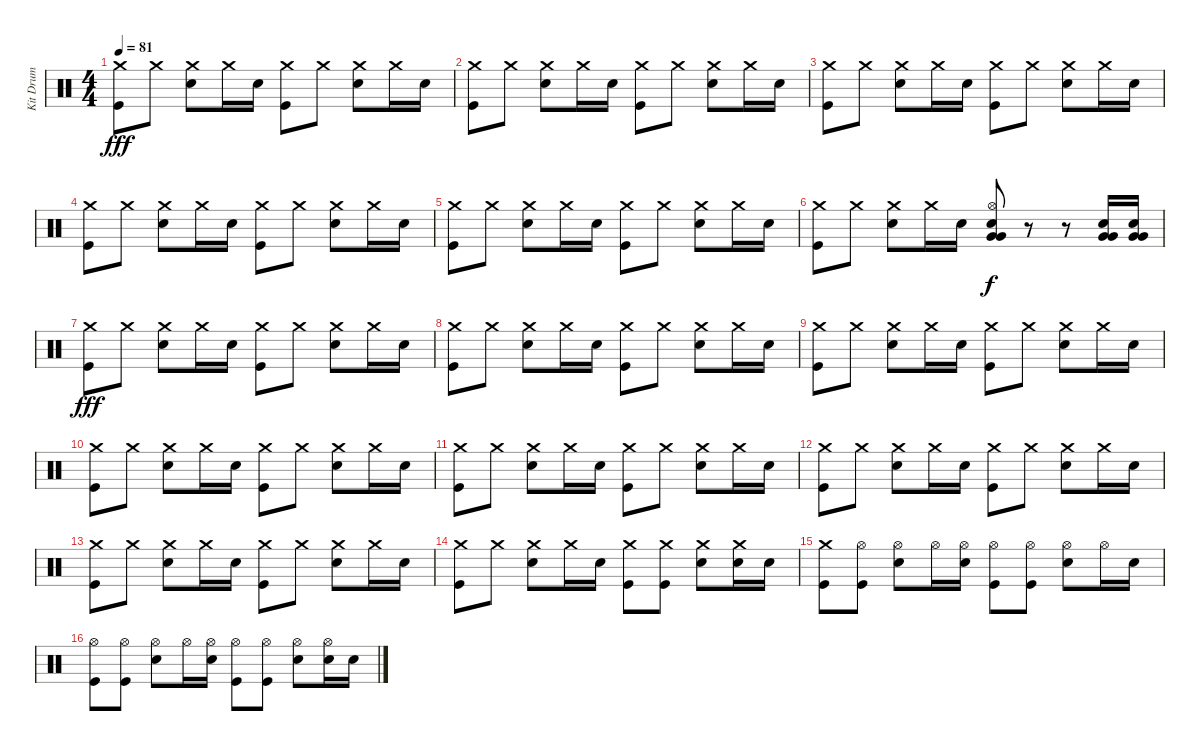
\track ("Kit Drum" "Kit Drum") {instrument percussion}
\staff {score}
\articulation defaults
\ts (4 4)
\tempo 81
\clef neutral
\ks c
("Crash medium (hit)" "Kick (hit)").8{dy fff} "Crash medium (hit)".8 ("Crash medium (hit)" "Electric Snare (hit)").8 "Crash medium (hit)".16 "Electric Snare (hit)".16 ("Crash medium (hit)" "Kick (hit)").8 "Crash medium (hit)".8 ("Crash medium (hit)" "Electric Snare (hit)").8 "Crash medium (hit)".16 "Electric Snare (hit)".16 |
("Crash medium (hit)" "Kick (hit)").8 "Crash medium (hit)".8 ("Crash medium (hit)" "Electric Snare (hit)").8 "Crash medium (hit)".16 "Electric Snare (hit)".16 ("Crash medium (hit)" "Kick (hit)").8 "Crash medium (hit)".8 ("Crash medium (hit)" "Electric Snare (hit)").8 "Crash medium (hit)".16 "Electric Snare (hit)".16 |
("Crash medium (hit)" "Kick (hit)").8 "Crash medium (hit)".8 ("Crash medium (hit)" "Electric Snare (hit)").8 "Crash medium (hit)".16 "Electric Snare (hit)".16 ("Crash medium (hit)" "Kick (hit)").8 "Crash medium (hit)".8 ("Crash medium (hit)" "Electric Snare (hit)").8 "Crash medium (hit)".16 "Electric Snare (hit)".16 |
("Crash medium (hit)" "Kick (hit)").8 "Crash medium (hit)".8 ("Crash medium (hit)" "Electric Snare (hit)").8 "Crash medium (hit)".16 "Electric Snare (hit)".16 ("Crash medium (hit)" "Kick (hit)").8 "Crash medium (hit)".8 ("Crash medium (hit)" "Electric Snare (hit)").8 "Crash medium (hit)".16 "Electric Snare (hit)".16 |
("Crash medium (hit)" "Kick (hit)").8 "Crash medium (hit)".8 ("Crash medium (hit)" "Electric Snare (hit)").8 "Crash medium (hit)".16 "Electric Snare (hit)".16 ("Crash medium (hit)" "Kick (hit)").8 "Crash medium (hit)".8 ("Crash medium (hit)" "Electric Snare (hit)").8 "Crash medium (hit)".16 "Electric Snare (hit)".16 |
("Crash medium (hit)" "Kick (hit)").8 "Crash medium (hit)".8 ("Crash medium (hit)" "Electric Snare (hit)").8 "Crash medium (hit)".16 "Electric Snare (hit)".16 ("Hi-Hat (open)" "Electric Snare (hit)" "Very Low Tom (hit)" "Very Low Tom (hit)").8{dy f} r.8 r.8 ("Electric Snare (hit)" "Very Low Tom (hit)" "Very Low Tom (hit)").16 ("Electric Snare (hit)" "Very Low Tom (hit)" "Very Low Tom (hit)").16 |
("Crash medium (hit)" "Kick (hit)").8{dy fff} "Crash medium (hit)".8 ("Crash medium (hit)" "Electric Snare (hit)").8 "Crash medium (hit)".16 "Electric Snare (hit)".16 ("Crash medium (hit)" "Kick (hit)").8 "Crash medium (hit)".8 ("Crash medium (hit)" "Electric Snare (hit)").8 "Crash medium (hit)".16 "Electric Snare (hit)".16 |
("Crash medium (hit)" "Kick (hit)").8 "Crash medium (hit)".8 ("Crash medium (hit)" "Electric Snare (hit)").8 "Crash medium (hit)".16 "Electric Snare (hit)".16 ("Crash medium (hit)" "Kick (hit)").8 "Crash medium (hit)".8 ("Crash medium (hit)" "Electric Snare (hit)").8 "Crash medium (hit)".16 "Electric Snare (hit)".16 |
("Crash medium (hit)" "Kick (hit)").8 "Crash medium (hit)".8 ("Crash medium (hit)" "Electric Snare (hit)").8 "Crash medium (hit)".16 "Electric Snare (hit)".16 ("Crash medium (hit)" "Kick (hit)").8 "Crash medium (hit)".8 ("Crash medium (hit)" "Electric Snare (hit)").8 "Crash medium (hit)".16 "Electric Snare (hit)".16 |
("Crash medium (hit)" "Kick (hit)").8 "Crash medium (hit)".8 ("Crash medium (hit)" "Electric Snare (hit)").8 "Crash medium (hit)".16 "Electric Snare (hit)".16 ("Crash medium (hit)" "Kick (hit)").8 "Crash medium (hit)".8 ("Crash medium (hit)" "Electric Snare (hit)").8 "Crash medium (hit)".16 "Electric Snare (hit)".16 |
("Crash medium (hit)" "Kick (hit)").8 "Crash medium (hit)".8 ("Crash medium (hit)" "Electric Snare (hit)").8 "Crash medium (hit)".16 "Electric Snare (hit)".16 ("Crash medium (hit)" "Kick (hit)").8 "Crash medium (hit)".8 ("Crash medium (hit)" "Electric Snare (hit)").8 "Crash medium (hit)".16 "Electric Snare (hit)".16 |
("Crash medium (hit)" "Kick (hit)").8 "Crash medium (hit)".8 ("Crash medium (hit)" "Electric Snare (hit)").8 "Crash medium (hit)".16 "Electric Snare (hit)".16 ("Crash medium (hit)" "Kick (hit)").8 "Crash medium (hit)".8 ("Crash medium (hit)" "Electric Snare (hit)").8 "Crash medium (hit)".16 "Electric Snare (hit)".16 |
("Crash medium (hit)" "Kick (hit)").8 "Crash medium (hit)".8 ("Crash medium (hit)" "Electric Snare (hit)").8 "Crash medium (hit)".16 "Electric Snare (hit)".16 ("Crash medium (hit)" "Kick (hit)").8 "Crash medium (hit)".8 ("Crash medium (hit)" "Electric Snare (hit)").8 "Crash medium (hit)".16 "Electric Snare (hit)".16 |
("Crash medium (hit)" "Kick (hit)").8 "Crash medium (hit)".8 ("Crash medium (hit)" "Electric Snare (hit)").8 "Crash medium (hit)".16 "Electric Snare (hit)".16 ("Crash medium (hit)" "Kick (hit)").8 ("Crash medium (hit)" "Kick (hit)").8 ("Crash medium (hit)" "Electric Snare (hit)").8 ("Crash medium (hit)" "Electric Snare (hit)").16 "Electric Snare (hit)".16 |
("Crash medium (hit)" "Kick (hit)").8 ("Hi-Hat (open)" "Kick (hit)").8 ("Hi-Hat (open)" "Electric Snare (hit)").8 "Hi-Hat (open)".16 ("Hi-Hat (open)" "Electric Snare (hit)").16 ("Hi-Hat (open)" "Kick (hit)").8 ("Hi-Hat (open)" "Kick (hit)").8 ("Hi-Hat (open)" "Electric Snare (hit)").8 "Hi-Hat (open)".16 "Electric Snare (hit)".16 |
("Hi-Hat (open)" "Kick (hit)").8 ("Hi-Hat (open)" "Kick (hit)").8 ("Hi-Hat (open)" "Electric Snare (hit)").8 "Hi-Hat (open)".16 ("Hi-Hat (open)" "Electric Snare (hit)").16 ("Hi-Hat (open)" "Kick (hit)").8 ("Hi-Hat (open)" "Kick (hit)").8 ("Hi-Hat (open)" "Electric Snare (hit)").8 ("Hi-Hat (open)" "Electric Snare (hit)").16 "Electric Snare (hit)".16
